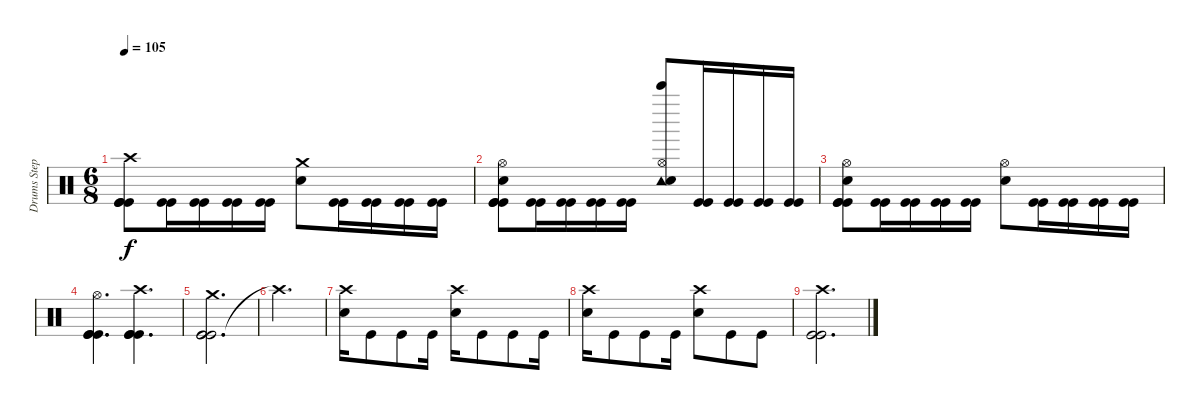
\track ("Drums Stephen van Haestregt" "Drums Step") {instrument percussion}
\staff {score}
\articulation defaults
\ts (6 8)
\tempo 105
\clef neutral
\ks c
("Kick (hit)" "Kick (hit)" "Kick (hit)" "Crash high (hit)").8{dy f} ("Kick (hit)" "Kick (hit)").16 ("Kick (hit)" "Kick (hit)").16 ("Kick (hit)" "Kick (hit)").16 ("Kick (hit)" "Kick (hit)").16 ("Snare (hit) 2" "Crash medium (hit)").8 ("Kick (hit)" "Kick (hit)").16 ("Kick (hit)" "Kick (hit)").16 ("Kick (hit)" "Kick (hit)").16 ("Kick (hit)" "Kick (hit)").16 |
("Kick (hit)" "Kick (hit)" "Kick (hit)" "Snare (hit) 2" "Hi-Hat (open)").8 ("Kick (hit)" "Kick (hit)").16 ("Kick (hit)" "Kick (hit)").16 ("Kick (hit)" "Kick (hit)").16 ("Kick (hit)" "Kick (hit)").16 ("Bell Tree (hit)" "Tambourine (hit)" "Snare (hit) 2" "Hi-Hat (open)").8 ("Kick (hit)" "Kick (hit)").16 ("Kick (hit)" "Kick (hit)").16 ("Kick (hit)" "Kick (hit)").16 ("Kick (hit)" "Kick (hit)").16 |
("Kick (hit)" "Kick (hit)" "Kick (hit)" "Hi-Hat (open)" "Snare (hit) 2").8 ("Kick (hit)" "Kick (hit)").16 ("Kick (hit)" "Kick (hit)").16 ("Kick (hit)" "Kick (hit)").16 ("Kick (hit)" "Kick (hit)").16 ("Snare (hit) 2" "Hi-Hat (open)").8 ("Kick (hit)" "Kick (hit)").16 ("Kick (hit)" "Kick (hit)").16 ("Kick (hit)" "Kick (hit)").16 ("Kick (hit)" "Kick (hit)").16 |
("Kick (hit)" "Kick (hit)" "Kick (hit)" "Hi-Hat (open)").4{d} ("Kick (hit)" "Kick (hit)" "Kick (hit)" "Crash high (hit)").4{d} |
("Kick (hit)" "Kick (hit)" "Kick (hit)" "Crash medium (hit)").2{d} |
"Crash high (hit)"{t}.2{d} |
("Crash high (hit)" "Snare (hit) 2").16 "Kick (hit)".8 "Kick (hit)".8 "Kick (hit)".16 ("Crash high (hit)" "Snare (hit) 2").16 "Kick (hit)".8 "Kick (hit)".8 "Kick (hit)".16 |
("Crash high (hit)" "Snare (hit) 2").16 "Kick (hit)".8 "Kick (hit)".8 "Kick (hit)".16 ("Crash high (hit)" "Snare (hit) 2").8 "Kick (hit)".8 "Kick (hit)".8 |
("Crash high (hit)" "Kick (hit)" "Kick (hit)").2{d}
